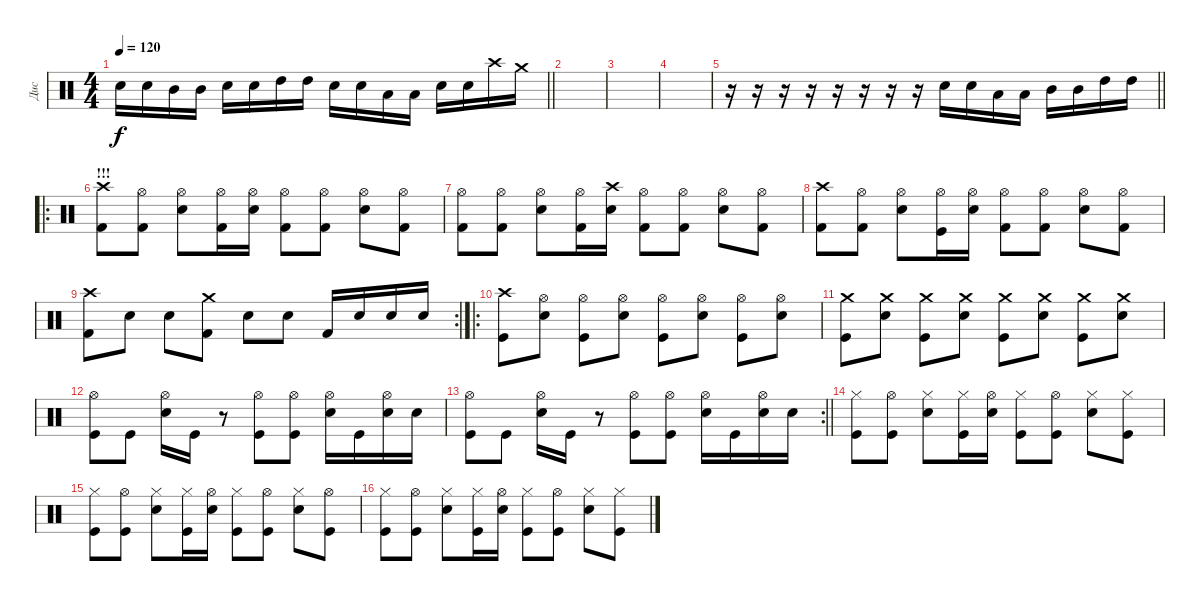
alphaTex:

\track ("Дис  " "Дис  ") {instrument percussion}
\staff {score}
\articulation defaults
\ts (4 4)
\tempo 120
\clef neutral
\barLineRight lightlight
\ks c "Snare (hit) 2".16{dy f} "Snare (hit) 2".16 "Mid Tom (hit)".16 "Mid Tom (hit)".16 "Snare (hit) 2".16 "Snare (hit) 2".16 "High Tom (hit)".16 "High Tom (hit)".16 "Snare (hit) 2".16 "Snare (hit) 2".16 "Low Tom (hit)".16 "Low Tom (hit)".16 "Snare (hit) 2".16 "Snare (hit) 2".16 "Crash high (hit)".16 "Crash medium (hit)".16
|
|
|
|
\barLineRight lightlight
r.16 r.16 r.16 r.16 r.16 r.16 r.16 r.16 "Snare (hit) 2".16 "Snare (hit) 2".16 "Low Tom (hit)".16 "Low Tom (hit)".16 "Mid Tom (hit)".16 "Mid Tom (hit)".16 "High Tom (hit)".16 "High Tom (hit)".16 |
\ro
\section ("" "!!!")
("Crash high (hit)" "Kick (hit) 2").8 ("Hi-Hat (open)" "Kick (hit) 2").8 ("Hi-Hat (open)" "Electric Snare (hit)").8 ("Hi-Hat (open)" "Kick (hit) 2").16 ("Hi-Hat (open)" "Electric Snare (hit)").16 ("Hi-Hat (open)" "Kick (hit) 2").8 ("Hi-Hat (open)" "Kick (hit) 2").8 ("Hi-Hat (open)" "Electric Snare (hit)").8 ("Hi-Hat (open)" "Kick (hit) 2").8 |
("Hi-Hat (open)" "Kick (hit) 2").8 ("Hi-Hat (open)" "Kick (hit) 2").8 ("Hi-Hat (open)" "Electric Snare (hit)").8 ("Hi-Hat (open)" "Kick (hit) 2").16 ("Crash high (hit)" "Electric Snare (hit)").16 ("Hi-Hat (open)" "Kick (hit) 2").8 ("Hi-Hat (open)" "Kick (hit) 2").8 ("Hi-Hat (open)" "Electric Snare (hit)").8 ("Hi-Hat (open)" "Kick (hit) 2").8 |
("Crash high (hit)" "Kick (hit) 2").8 ("Hi-Hat (open)" "Kick (hit) 2").8 ("Hi-Hat (open)" "Electric Snare (hit)").8 ("Hi-Hat (open)" "Kick (hit)").16 ("Hi-Hat (open)" "Electric Snare (hit)").16 ("Hi-Hat (open)" "Kick (hit) 2").8 ("Hi-Hat (open)" "Kick (hit) 2").8 ("Hi-Hat (open)" "Electric Snare (hit)").8 ("Hi-Hat (open)" "Kick (hit) 2").8 |
\rc 2
("Crash high (hit)" "Kick (hit) 2").8 "Electric Snare (hit)".8 "Electric Snare (hit)".8 ("Crash medium (hit)" "Kick (hit) 2").8 "Electric Snare (hit)".8 "Electric Snare (hit)".8 "Kick (hit) 2".16 "Electric Snare (hit)".16 "Electric Snare (hit)".16 "Electric Snare (hit)".16 |
\ro
("Crash high (hit)" "Kick (hit)").8 ("Hi-Hat (open)" "Electric Snare (hit)").8 ("Hi-Hat (open)" "Kick (hit)").8 ("Hi-Hat (open)" "Electric Snare (hit)").8 ("Hi-Hat (open)" "Kick (hit)").8 ("Hi-Hat (open)" "Electric Snare (hit)").8 ("Hi-Hat (open)" "Kick (hit)").8 ("Hi-Hat (open)" "Electric Snare (hit)").8 |
("Crash medium (hit)" "Kick (hit)").8 ("Crash medium (hit)" "Electric Snare (hit)").8 ("Crash medium (hit)" "Kick (hit)").8 ("Crash medium (hit)" "Electric Snare (hit)").8 ("Crash medium (hit)" "Kick (hit)").8 ("Crash medium (hit)" "Electric Snare (hit)").8 ("Crash medium (hit)" "Kick (hit)").8 ("Crash medium (hit)" "Electric Snare (hit)").8 |
("Hi-Hat (open)" "Kick (hit)").8 "Kick (hit)".8 ("Hi-Hat (open)" "Electric Snare (hit)").16 "Kick (hit)".16 r.8 ("Hi-Hat (open)" "Kick (hit)").8 ("Hi-Hat (open)" "Kick (hit)").8 ("Hi-Hat (open)" "Electric Snare (hit)").16 "Kick (hit)".16 ("Hi-Hat (open)" "Electric Snare (hit)").16 "Electric Snare (hit)".16 |
\rc 2
\barLineRight lightlight
("Hi-Hat (open)" "Kick (hit)").8 "Kick (hit)".8 ("Hi-Hat (open)" "Electric Snare (hit)").16 "Kick (hit)".16 r.8 ("Hi-Hat (open)" "Kick (hit)").8 ("Hi-Hat (open)" "Kick (hit)").8 ("Hi-Hat (open)" "Electric Snare (hit)").16 "Kick (hit)".16 ("Hi-Hat (open)" "Electric Snare (hit)").16 "Electric Snare (hit)".16 |
("Hi-Hat (closed)" "Kick (hit)").8 ("Hi-Hat (open)" "Kick (hit)").8 ("Hi-Hat (closed)" "Electric Snare (hit)").8 ("Hi-Hat (closed)" "Kick (hit)").16 ("Hi-Hat (open)" "Electric Snare (hit)").16 ("Hi-Hat (closed)" "Kick (hit)").8 ("Hi-Hat (open)" "Kick (hit)").8 ("Hi-Hat (closed)" "Electric Snare (hit)").8 ("Hi-Hat (closed)" "Kick (hit)").8 |
("Hi-Hat (closed)" "Kick (hit)").8 ("Hi-Hat (open)" "Kick (hit)").8 ("Hi-Hat (closed)" "Electric Snare (hit)").8 ("Hi-Hat (closed)" "Kick (hit)").16 ("Hi-Hat (open)" "Electric Snare (hit)").16 ("Hi-Hat (closed)" "Kick (hit)").8 ("Hi-Hat (open)" "Kick (hit)").8 ("Hi-Hat (closed)" "Electric Snare (hit)").8 ("Hi-Hat (open)" "Kick (hit)").8 |
("Hi-Hat (closed)" "Kick (hit)").8 ("Hi-Hat (open)" "Kick (hit)").8 ("Hi-Hat (closed)" "Electric Snare (hit)").8 ("Hi-Hat (closed)" "Kick (hit)").16 ("Hi-Hat (open)" "Electric Snare (hit)").16 ("Hi-Hat (closed)" "Kick (hit)").8 ("Hi-Hat (open)" "Kick (hit)").8 ("Hi-Hat (closed)" "Electric Snare (hit)").8 ("Hi-Hat (closed)" "Kick (hit)").8
